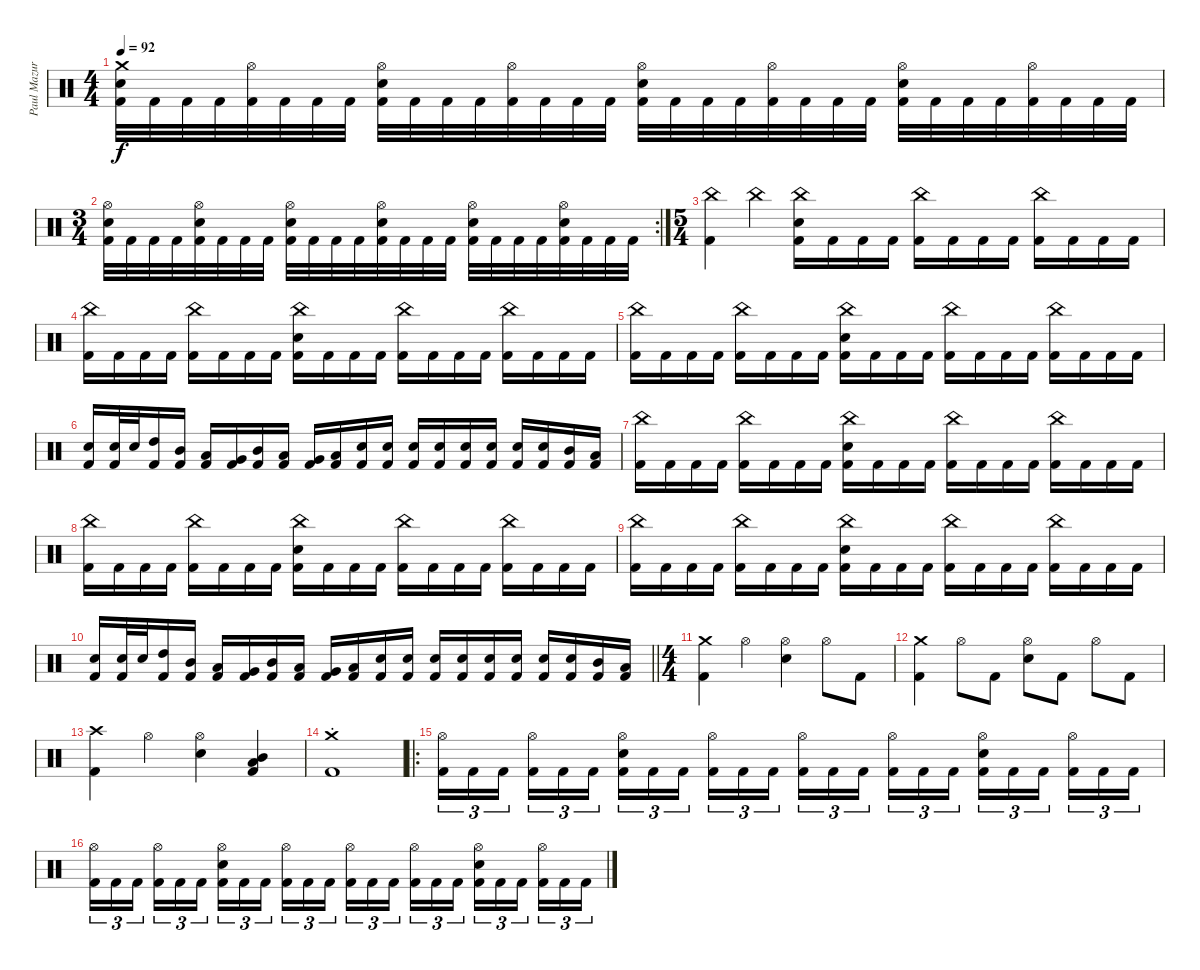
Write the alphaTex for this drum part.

\track ("Paul Mazurkiewicz" "Paul Mazur") {instrument percussion}
\staff {score}
\articulation defaults
\ts (4 4)
\tempo 92
\clef neutral
\ks c
("Crash medium (hit)" "Electric Snare (hit)" "Kick (hit) 2").32{dy f} "Kick (hit) 2".32 "Kick (hit) 2".32 "Kick (hit) 2".32 ("Hi-Hat (open)" "Kick (hit) 2").32 "Kick (hit) 2".32 "Kick (hit) 2".32 "Kick (hit) 2".32 ("Hi-Hat (open)" "Electric Snare (hit)" "Kick (hit) 2").32 "Kick (hit) 2".32 "Kick (hit) 2".32 "Kick (hit) 2".32 ("Hi-Hat (open)" "Kick (hit) 2").32 "Kick (hit) 2".32 "Kick (hit) 2".32 "Kick (hit) 2".32 ("Hi-Hat (open)" "Electric Snare (hit)" "Kick (hit) 2").32 "Kick (hit) 2".32 "Kick (hit) 2".32 "Kick (hit) 2".32 ("Hi-Hat (open)" "Kick (hit) 2").32 "Kick (hit) 2".32 "Kick (hit) 2".32 "Kick (hit) 2".32 ("Hi-Hat (open)" "Electric Snare (hit)" "Kick (hit) 2").32 "Kick (hit) 2".32 "Kick (hit) 2".32 "Kick (hit) 2".32 ("Hi-Hat (open)" "Kick (hit) 2").32 "Kick (hit) 2".32 "Kick (hit) 2".32 "Kick (hit) 2".32 |
\rc 2
\ts (3 4)
("Hi-Hat (open)" "Electric Snare (hit)" "Kick (hit) 2").32 "Kick (hit) 2".32 "Kick (hit) 2".32 "Kick (hit) 2".32 ("Hi-Hat (open)" "Electric Snare (hit)" "Kick (hit) 2").32 "Kick (hit) 2".32 "Kick (hit) 2".32 "Kick (hit) 2".32 ("Hi-Hat (open)" "Electric Snare (hit)" "Kick (hit) 2").32 "Kick (hit) 2".32 "Kick (hit) 2".32 "Kick (hit) 2".32 ("Hi-Hat (open)" "Electric Snare (hit)" "Kick (hit) 2").32 "Kick (hit) 2".32 "Kick (hit) 2".32 "Kick (hit) 2".32 ("Hi-Hat (open)" "Electric Snare (hit)" "Kick (hit) 2").32 "Kick (hit) 2".32 "Kick (hit) 2".32 "Kick (hit) 2".32 ("Hi-Hat (open)" "Electric Snare (hit)" "Kick (hit) 2").32 "Kick (hit) 2".32 "Kick (hit) 2".32 "Kick (hit) 2".32 |
\ts (5 4)
("China (hit)" "Kick (hit) 2").4 "China (hit)".4 ("China (hit)" "Electric Snare (hit)" "Kick (hit) 2").16 "Kick (hit) 2".16 "Kick (hit) 2".16 "Kick (hit) 2".16 ("China (hit)" "Kick (hit) 2").16 "Kick (hit) 2".16 "Kick (hit) 2".16 "Kick (hit) 2".16 ("China (hit)" "Kick (hit) 2").16 "Kick (hit) 2".16 "Kick (hit) 2".16 "Kick (hit) 2".16 |
("China (hit)" "Kick (hit) 2").16 "Kick (hit) 2".16 "Kick (hit) 2".16 "Kick (hit) 2".16 ("China (hit)" "Kick (hit) 2").16 "Kick (hit) 2".16 "Kick (hit) 2".16 "Kick (hit) 2".16 ("China (hit)" "Electric Snare (hit)" "Kick (hit) 2").16 "Kick (hit) 2".16 "Kick (hit) 2".16 "Kick (hit) 2".16 ("China (hit)" "Kick (hit) 2").16 "Kick (hit) 2".16 "Kick (hit) 2".16 "Kick (hit) 2".16 ("China (hit)" "Kick (hit) 2").16 "Kick (hit) 2".16 "Kick (hit) 2".16 "Kick (hit) 2".16 |
("China (hit)" "Kick (hit) 2").16 "Kick (hit) 2".16 "Kick (hit) 2".16 "Kick (hit) 2".16 ("China (hit)" "Kick (hit) 2").16 "Kick (hit) 2".16 "Kick (hit) 2".16 "Kick (hit) 2".16 ("China (hit)" "Electric Snare (hit)" "Kick (hit) 2").16 "Kick (hit) 2".16 "Kick (hit) 2".16 "Kick (hit) 2".16 ("China (hit)" "Kick (hit) 2").16 "Kick (hit) 2".16 "Kick (hit) 2".16 "Kick (hit) 2".16 ("China (hit)" "Kick (hit) 2").16 "Kick (hit) 2".16 "Kick (hit) 2".16 "Kick (hit) 2".16 |
("Electric Snare (hit)" "Kick (hit) 2").16 ("Electric Snare (hit)" "Kick (hit) 2").32 "Electric Snare (hit)".32 ("High Tom (hit)" "Kick (hit) 2").16 ("Mid Tom (hit)" "Kick (hit) 2").16 ("Low Tom (hit)" "Kick (hit) 2").16 ("Very Low Tom (hit)" "Kick (hit) 2").16 ("Mid Tom (hit)" "Kick (hit) 2").16 ("Low Tom (hit)" "Kick (hit) 2").16 ("Very Low Tom (hit)" "Kick (hit) 2").16 ("Low Floor Tom (hit)" "Kick (hit) 2").16 ("Electric Snare (hit)" "Kick (hit) 2").16 ("Electric Snare (hit)" "Kick (hit) 2").16 ("Electric Snare (hit)" "Kick (hit) 2").16 ("Electric Snare (hit)" "Kick (hit) 2").16 ("Electric Snare (hit)" "Kick (hit) 2").16 ("Electric Snare (hit)" "Kick (hit) 2").16 ("Electric Snare (hit)" "Kick (hit) 2").16 ("Electric Snare (hit)" "Kick (hit) 2").16 ("Mid Tom (hit)" "Kick (hit) 2").16 ("Low Tom (hit)" "Kick (hit) 2").16 |
("China (hit)" "Kick (hit) 2").16 "Kick (hit) 2".16 "Kick (hit) 2".16 "Kick (hit) 2".16 ("China (hit)" "Kick (hit) 2").16 "Kick (hit) 2".16 "Kick (hit) 2".16 "Kick (hit) 2".16 ("China (hit)" "Electric Snare (hit)" "Kick (hit) 2").16 "Kick (hit) 2".16 "Kick (hit) 2".16 "Kick (hit) 2".16 ("China (hit)" "Kick (hit) 2").16 "Kick (hit) 2".16 "Kick (hit) 2".16 "Kick (hit) 2".16 ("China (hit)" "Kick (hit) 2").16 "Kick (hit) 2".16 "Kick (hit) 2".16 "Kick (hit) 2".16 |
("China (hit)" "Kick (hit) 2").16 "Kick (hit) 2".16 "Kick (hit) 2".16 "Kick (hit) 2".16 ("China (hit)" "Kick (hit) 2").16 "Kick (hit) 2".16 "Kick (hit) 2".16 "Kick (hit) 2".16 ("China (hit)" "Electric Snare (hit)" "Kick (hit) 2").16 "Kick (hit) 2".16 "Kick (hit) 2".16 "Kick (hit) 2".16 ("China (hit)" "Kick (hit) 2").16 "Kick (hit) 2".16 "Kick (hit) 2".16 "Kick (hit) 2".16 ("China (hit)" "Kick (hit) 2").16 "Kick (hit) 2".16 "Kick (hit) 2".16 "Kick (hit) 2".16 |
("China (hit)" "Kick (hit) 2").16 "Kick (hit) 2".16 "Kick (hit) 2".16 "Kick (hit) 2".16 ("China (hit)" "Kick (hit) 2").16 "Kick (hit) 2".16 "Kick (hit) 2".16 "Kick (hit) 2".16 ("China (hit)" "Electric Snare (hit)" "Kick (hit) 2").16 "Kick (hit) 2".16 "Kick (hit) 2".16 "Kick (hit) 2".16 ("China (hit)" "Kick (hit) 2").16 "Kick (hit) 2".16 "Kick (hit) 2".16 "Kick (hit) 2".16 ("China (hit)" "Kick (hit) 2").16 "Kick (hit) 2".16 "Kick (hit) 2".16 "Kick (hit) 2".16 |
\barLineRight lightlight
("Electric Snare (hit)" "Kick (hit) 2").16 ("Electric Snare (hit)" "Kick (hit) 2").32 "Electric Snare (hit)".32 ("High Tom (hit)" "Kick (hit) 2").16 ("Mid Tom (hit)" "Kick (hit) 2").16 ("Low Tom (hit)" "Kick (hit) 2").16 ("Very Low Tom (hit)" "Kick (hit) 2").16 ("Mid Tom (hit)" "Kick (hit) 2").16 ("Low Tom (hit)" "Kick (hit) 2").16 ("Very Low Tom (hit)" "Kick (hit) 2").16 ("Low Floor Tom (hit)" "Kick (hit) 2").16 ("Electric Snare (hit)" "Kick (hit) 2").16 ("Electric Snare (hit)" "Kick (hit) 2").16 ("Electric Snare (hit)" "Kick (hit) 2").16 ("Electric Snare (hit)" "Kick (hit) 2").16 ("Electric Snare (hit)" "Kick (hit) 2").16 ("Electric Snare (hit)" "Kick (hit) 2").16 ("Electric Snare (hit)" "Kick (hit) 2").16 ("Electric Snare (hit)" "Kick (hit) 2").16 ("Mid Tom (hit)" "Kick (hit) 2").16 ("Low Tom (hit)" "Kick (hit) 2").16 |
\ts (4 4)
("Crash medium (hit)" "Kick (hit) 2").4 "Hi-Hat (open)".4 ("Hi-Hat (open)" "Electric Snare (hit)").4 "Hi-Hat (open)".8 "Kick (hit) 2".8 |
("Crash medium (hit)" "Kick (hit) 2").4 "Hi-Hat (open)".8 "Kick (hit) 2".8 ("Hi-Hat (open)" "Electric Snare (hit)").8 "Kick (hit) 2".8 "Hi-Hat (open)".8 "Kick (hit) 2".8 |
("Crash high (hit)" "Kick (hit) 2").4 "Hi-Hat (open)".4 ("Hi-Hat (open)" "Electric Snare (hit)").4 ("Mid Tom (hit)" "Low Tom (hit)" "Kick (hit) 2").4 |
("Crash medium (hit)"{st} "Kick (hit) 2").1 |
\ro
("Hi-Hat (open)" "Kick (hit) 2").16{tu (3 2)} "Kick (hit) 2".16{tu (3 2)} "Kick (hit) 2".16{tu (3 2) beam splitsecondary} ("Hi-Hat (open)" "Kick (hit) 2").16{tu (3 2)} "Kick (hit) 2".16{tu (3 2)} "Kick (hit) 2".16{tu (3 2)} ("Hi-Hat (open)" "Electric Snare (hit)" "Kick (hit) 2").16{tu (3 2)} "Kick (hit) 2".16{tu (3 2)} "Kick (hit) 2".16{tu (3 2) beam splitsecondary} ("Hi-Hat (open)" "Kick (hit) 2").16{tu (3 2)} "Kick (hit) 2".16{tu (3 2)} "Kick (hit) 2".16{tu (3 2)} ("Hi-Hat (open)" "Kick (hit) 2").16{tu (3 2)} "Kick (hit) 2".16{tu (3 2)} "Kick (hit) 2".16{tu (3 2) beam splitsecondary} ("Hi-Hat (open)" "Kick (hit) 2").16{tu (3 2)} "Kick (hit) 2".16{tu (3 2)} "Kick (hit) 2".16{tu (3 2)} ("Hi-Hat (open)" "Electric Snare (hit)" "Kick (hit) 2").16{tu (3 2)} "Kick (hit) 2".16{tu (3 2)} "Kick (hit) 2".16{tu (3 2) beam splitsecondary} ("Hi-Hat (open)" "Kick (hit) 2").16{tu (3 2)} "Kick (hit) 2".16{tu (3 2)} "Kick (hit) 2".16{tu (3 2)} |
("Hi-Hat (open)" "Kick (hit) 2").16{tu (3 2)} "Kick (hit) 2".16{tu (3 2)} "Kick (hit) 2".16{tu (3 2) beam splitsecondary} ("Hi-Hat (open)" "Kick (hit) 2").16{tu (3 2)} "Kick (hit) 2".16{tu (3 2)} "Kick (hit) 2".16{tu (3 2)} ("Hi-Hat (open)" "Electric Snare (hit)" "Kick (hit) 2").16{tu (3 2)} "Kick (hit) 2".16{tu (3 2)} "Kick (hit) 2".16{tu (3 2) beam splitsecondary} ("Hi-Hat (open)" "Kick (hit) 2").16{tu (3 2)} "Kick (hit) 2".16{tu (3 2)} "Kick (hit) 2".16{tu (3 2)} ("Hi-Hat (open)" "Kick (hit) 2").16{tu (3 2)} "Kick (hit) 2".16{tu (3 2)} "Kick (hit) 2".16{tu (3 2) beam splitsecondary} ("Hi-Hat (open)" "Kick (hit) 2").16{tu (3 2)} "Kick (hit) 2".16{tu (3 2)} "Kick (hit) 2".16{tu (3 2)} ("Hi-Hat (open)" "Electric Snare (hit)" "Kick (hit) 2").16{tu (3 2)} "Kick (hit) 2".16{tu (3 2)} "Kick (hit) 2".16{tu (3 2) beam splitsecondary} ("Hi-Hat (open)" "Kick (hit) 2").16{tu (3 2)} "Kick (hit) 2".16{tu (3 2)} "Kick (hit) 2".16{tu (3 2)}
